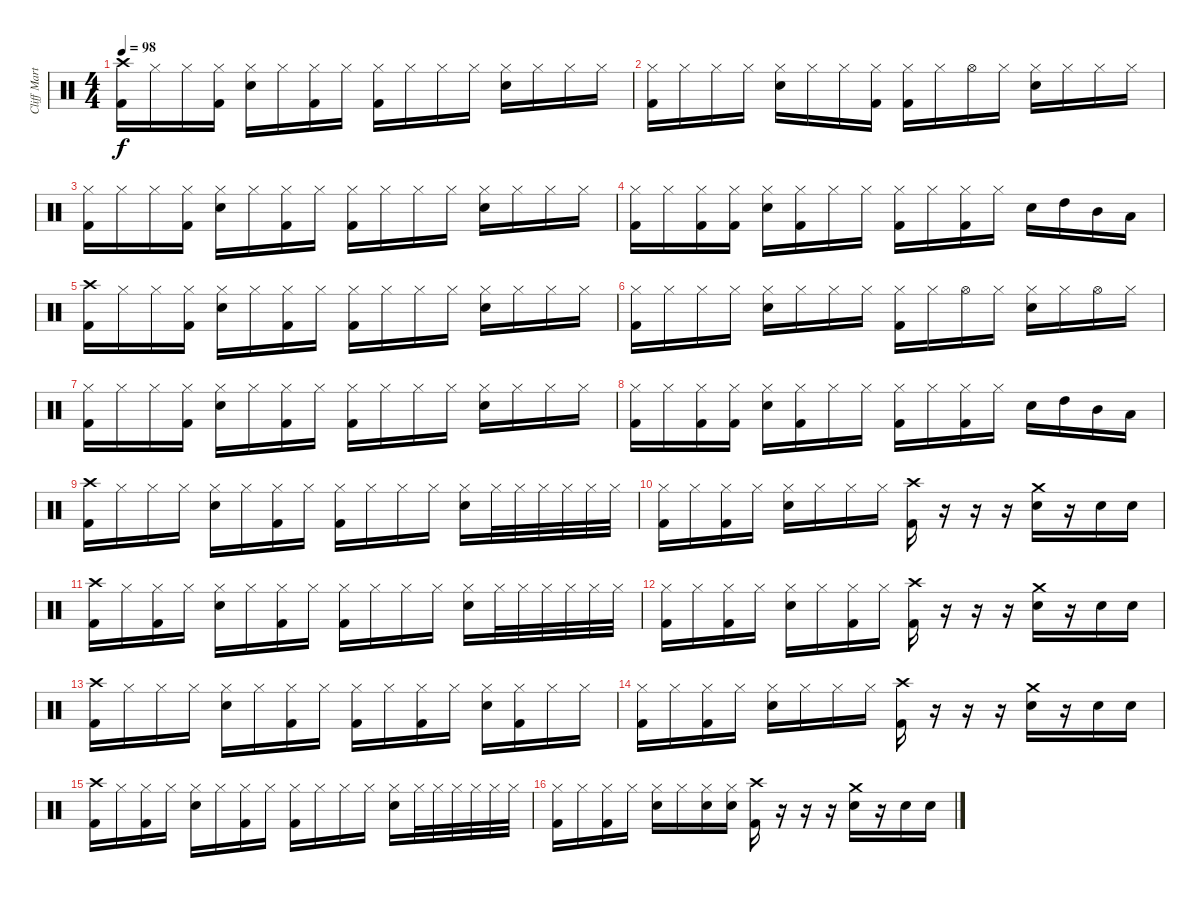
\track ("Cliff Martinez" "Cliff Mart") {instrument percussion bank 1}
\staff {score}
\articulation defaults
\ts (4 4)
\tempo 98
\clef neutral
\ks c
("Crash high (hit)" "Kick (hit) 2").16{dy f} "Hi-Hat (closed)".16 "Hi-Hat (closed)".16 ("Hi-Hat (closed)" "Kick (hit) 2").16 ("Hi-Hat (closed)" "Snare (hit) 2").16 "Hi-Hat (closed)".16 ("Hi-Hat (closed)" "Kick (hit) 2").16 "Hi-Hat (closed)".16 ("Hi-Hat (closed)" "Kick (hit) 2").16 "Hi-Hat (closed)".16 "Hi-Hat (closed)".16 "Hi-Hat (closed)".16 ("Hi-Hat (closed)" "Snare (hit) 2").16 "Hi-Hat (closed)".16 "Hi-Hat (closed)".16 "Hi-Hat (closed)".16 |
("Hi-Hat (closed)" "Kick (hit) 2").16 "Hi-Hat (closed)".16 "Hi-Hat (closed)".16 "Hi-Hat (closed)".16 ("Hi-Hat (closed)" "Snare (hit) 2").16 "Hi-Hat (closed)".16 "Hi-Hat (closed)".16 ("Hi-Hat (closed)" "Kick (hit) 2").16 ("Hi-Hat (closed)" "Kick (hit) 2").16 "Hi-Hat (closed)".16 "Hi-Hat (open)".16 "Hi-Hat (closed)".16 ("Hi-Hat (closed)" "Snare (hit) 2").16 "Hi-Hat (closed)".16 "Hi-Hat (closed)".16 "Hi-Hat (closed)".16 |
("Hi-Hat (closed)" "Kick (hit) 2").16 "Hi-Hat (closed)".16 "Hi-Hat (closed)".16 ("Hi-Hat (closed)" "Kick (hit) 2").16 ("Hi-Hat (closed)" "Snare (hit) 2").16 "Hi-Hat (closed)".16 ("Hi-Hat (closed)" "Kick (hit) 2").16 "Hi-Hat (closed)".16 ("Hi-Hat (closed)" "Kick (hit) 2").16 "Hi-Hat (closed)".16 "Hi-Hat (closed)".16 "Hi-Hat (closed)".16 ("Hi-Hat (closed)" "Snare (hit) 2").16 "Hi-Hat (closed)".16 "Hi-Hat (closed)".16 "Hi-Hat (closed)".16 |
("Hi-Hat (closed)" "Kick (hit) 2").16 "Hi-Hat (closed)".16 ("Hi-Hat (closed)" "Kick (hit) 2").16 ("Hi-Hat (closed)" "Kick (hit) 2").16 ("Hi-Hat (closed)" "Snare (hit) 2").16 ("Hi-Hat (closed)" "Kick (hit) 2").16 "Hi-Hat (closed)".16 "Hi-Hat (closed)".16 ("Hi-Hat (closed)" "Kick (hit) 2").16 "Hi-Hat (closed)".16 ("Hi-Hat (closed)" "Kick (hit) 2").16 "Hi-Hat (closed)".16 "Snare (hit) 2".16 "High Tom (hit)".16 "Mid Tom (hit)".16 "Low Tom (hit)".16 |
("Crash high (hit)" "Kick (hit) 2").16 "Hi-Hat (closed)".16 "Hi-Hat (closed)".16 ("Hi-Hat (closed)" "Kick (hit) 2").16 ("Hi-Hat (closed)" "Snare (hit) 2").16 "Hi-Hat (closed)".16 ("Hi-Hat (closed)" "Kick (hit) 2").16 "Hi-Hat (closed)".16 ("Hi-Hat (closed)" "Kick (hit) 2").16 "Hi-Hat (closed)".16 "Hi-Hat (closed)".16 "Hi-Hat (closed)".16 ("Hi-Hat (closed)" "Snare (hit) 2").16 "Hi-Hat (closed)".16 "Hi-Hat (closed)".16 "Hi-Hat (closed)".16 |
("Hi-Hat (closed)" "Kick (hit) 2").16 "Hi-Hat (closed)".16 "Hi-Hat (closed)".16 "Hi-Hat (closed)".16 ("Hi-Hat (closed)" "Snare (hit) 2").16 "Hi-Hat (closed)".16 "Hi-Hat (closed)".16 "Hi-Hat (closed)".16 ("Hi-Hat (closed)" "Kick (hit) 2").16 "Hi-Hat (closed)".16 "Hi-Hat (open)".16 "Hi-Hat (closed)".16 ("Hi-Hat (closed)" "Snare (hit) 2").16 "Hi-Hat (closed)".16 "Hi-Hat (open)".16 "Hi-Hat (closed)".16 |
("Hi-Hat (closed)" "Kick (hit) 2").16 "Hi-Hat (closed)".16 "Hi-Hat (closed)".16 ("Hi-Hat (closed)" "Kick (hit) 2").16 ("Hi-Hat (closed)" "Snare (hit) 2").16 "Hi-Hat (closed)".16 ("Hi-Hat (closed)" "Kick (hit) 2").16 "Hi-Hat (closed)".16 ("Hi-Hat (closed)" "Kick (hit) 2").16 "Hi-Hat (closed)".16 "Hi-Hat (closed)".16 "Hi-Hat (closed)".16 ("Hi-Hat (closed)" "Snare (hit) 2").16 "Hi-Hat (closed)".16 "Hi-Hat (closed)".16 "Hi-Hat (closed)".16 |
("Hi-Hat (closed)" "Kick (hit) 2").16 "Hi-Hat (closed)".16 ("Hi-Hat (closed)" "Kick (hit) 2").16 ("Hi-Hat (closed)" "Kick (hit) 2").16 ("Hi-Hat (closed)" "Snare (hit) 2").16 ("Hi-Hat (closed)" "Kick (hit) 2").16 "Hi-Hat (closed)".16 "Hi-Hat (closed)".16 ("Hi-Hat (closed)" "Kick (hit) 2").16 "Hi-Hat (closed)".16 ("Hi-Hat (closed)" "Kick (hit) 2").16 "Hi-Hat (closed)".16 "Snare (hit) 2".16 "High Tom (hit)".16 "Mid Tom (hit)".16 "Low Tom (hit)".16 |
("Crash high (hit)" "Kick (hit) 2").16 "Hi-Hat (closed)".16 "Hi-Hat (closed)".16 "Hi-Hat (closed)".16 ("Hi-Hat (closed)" "Snare (hit) 2").16 "Hi-Hat (closed)".16 ("Hi-Hat (closed)" "Kick (hit) 2").16 "Hi-Hat (closed)".16 ("Hi-Hat (closed)" "Kick (hit) 2").16 "Hi-Hat (closed)".16 "Hi-Hat (closed)".16 "Hi-Hat (closed)".16 ("Hi-Hat (closed)" "Snare (hit) 2").16 "Hi-Hat (closed)".32 "Hi-Hat (closed)".32 "Hi-Hat (closed)".32 "Hi-Hat (closed)".32 "Hi-Hat (closed)".32 "Hi-Hat (closed)".32 |
("Hi-Hat (closed)" "Kick (hit) 2").16 "Hi-Hat (closed)".16 ("Hi-Hat (closed)" "Kick (hit) 2").16 "Hi-Hat (closed)".16 ("Hi-Hat (closed)" "Snare (hit) 2").16 "Hi-Hat (closed)".16 "Hi-Hat (closed)".16 "Hi-Hat (closed)".16 ("Crash high (hit)" "Kick (hit) 2").16 r.16 r.16 r.16 ("Crash medium (hit)" "Snare (hit) 2").16 r.16 "Snare (hit) 2".16 "Snare (hit) 2".16 |
("Crash high (hit)" "Kick (hit) 2").16 "Hi-Hat (closed)".16 ("Hi-Hat (closed)" "Kick (hit) 2").16 "Hi-Hat (closed)".16 ("Hi-Hat (closed)" "Snare (hit) 2").16 "Hi-Hat (closed)".16 ("Hi-Hat (closed)" "Kick (hit) 2").16 "Hi-Hat (closed)".16 ("Hi-Hat (closed)" "Kick (hit) 2").16 "Hi-Hat (closed)".16 "Hi-Hat (closed)".16 "Hi-Hat (closed)".16 ("Hi-Hat (closed)" "Snare (hit) 2").16 "Hi-Hat (closed)".32 "Hi-Hat (closed)".32 "Hi-Hat (closed)".32 "Hi-Hat (closed)".32 "Hi-Hat (closed)".32 "Hi-Hat (closed)".32 |
("Hi-Hat (closed)" "Kick (hit) 2").16 "Hi-Hat (closed)".16 ("Hi-Hat (closed)" "Kick (hit) 2").16 "Hi-Hat (closed)".16 ("Hi-Hat (closed)" "Snare (hit) 2").16 "Hi-Hat (closed)".16 ("Hi-Hat (closed)" "Kick (hit) 2").16 "Hi-Hat (closed)".16 ("Crash high (hit)" "Kick (hit) 2").16 r.16 r.16 r.16 ("Crash medium (hit)" "Snare (hit) 2").16 r.16 "Snare (hit) 2".16 "Snare (hit) 2".16 |
("Crash high (hit)" "Kick (hit) 2").16 "Hi-Hat (closed)".16 "Hi-Hat (closed)".16 "Hi-Hat (closed)".16 ("Hi-Hat (closed)" "Snare (hit) 2").16 "Hi-Hat (closed)".16 ("Hi-Hat (closed)" "Kick (hit) 2").16 "Hi-Hat (closed)".16 ("Hi-Hat (closed)" "Kick (hit) 2").16 "Hi-Hat (closed)".16 ("Hi-Hat (closed)" "Kick (hit) 2").16 "Hi-Hat (closed)".16 ("Hi-Hat (closed)" "Snare (hit) 2").16 ("Hi-Hat (closed)" "Kick (hit) 2").16 "Hi-Hat (closed)".16 "Hi-Hat (closed)".16 |
("Hi-Hat (closed)" "Kick (hit) 2").16 "Hi-Hat (closed)".16 ("Hi-Hat (closed)" "Kick (hit) 2").16 "Hi-Hat (closed)".16 ("Hi-Hat (closed)" "Snare (hit) 2").16 "Hi-Hat (closed)".16 "Hi-Hat (closed)".16 "Hi-Hat (closed)".16 ("Crash high (hit)" "Kick (hit) 2").16 r.16 r.16 r.16 ("Crash medium (hit)" "Snare (hit) 2").16 r.16 "Snare (hit) 2".16 "Snare (hit) 2".16 |
("Crash high (hit)" "Kick (hit) 2").16 "Hi-Hat (closed)".16 ("Hi-Hat (closed)" "Kick (hit) 2").16 "Hi-Hat (closed)".16 ("Hi-Hat (closed)" "Snare (hit) 2").16 "Hi-Hat (closed)".16 ("Hi-Hat (closed)" "Kick (hit) 2").16 "Hi-Hat (closed)".16 ("Hi-Hat (closed)" "Kick (hit) 2").16 "Hi-Hat (closed)".16 "Hi-Hat (closed)".16 "Hi-Hat (closed)".16 ("Hi-Hat (closed)" "Snare (hit) 2").16 "Hi-Hat (closed)".32 "Hi-Hat (closed)".32 "Hi-Hat (closed)".32 "Hi-Hat (closed)".32 "Hi-Hat (closed)".32 "Hi-Hat (closed)".32 |
("Hi-Hat (closed)" "Kick (hit) 2").16 "Hi-Hat (closed)".16 ("Hi-Hat (closed)" "Kick (hit) 2").16 "Hi-Hat (closed)".16 ("Hi-Hat (closed)" "Snare (hit) 2").16 "Hi-Hat (closed)".16 ("Hi-Hat (closed)" "Snare (hit) 2").16 ("Hi-Hat (closed)" "Snare (hit) 2").16 ("Crash high (hit)" "Kick (hit) 2").16 r.16 r.16 r.16 ("Crash medium (hit)" "Snare (hit) 2").16 r.16 "Snare (hit) 2".16 "Snare (hit) 2".16
